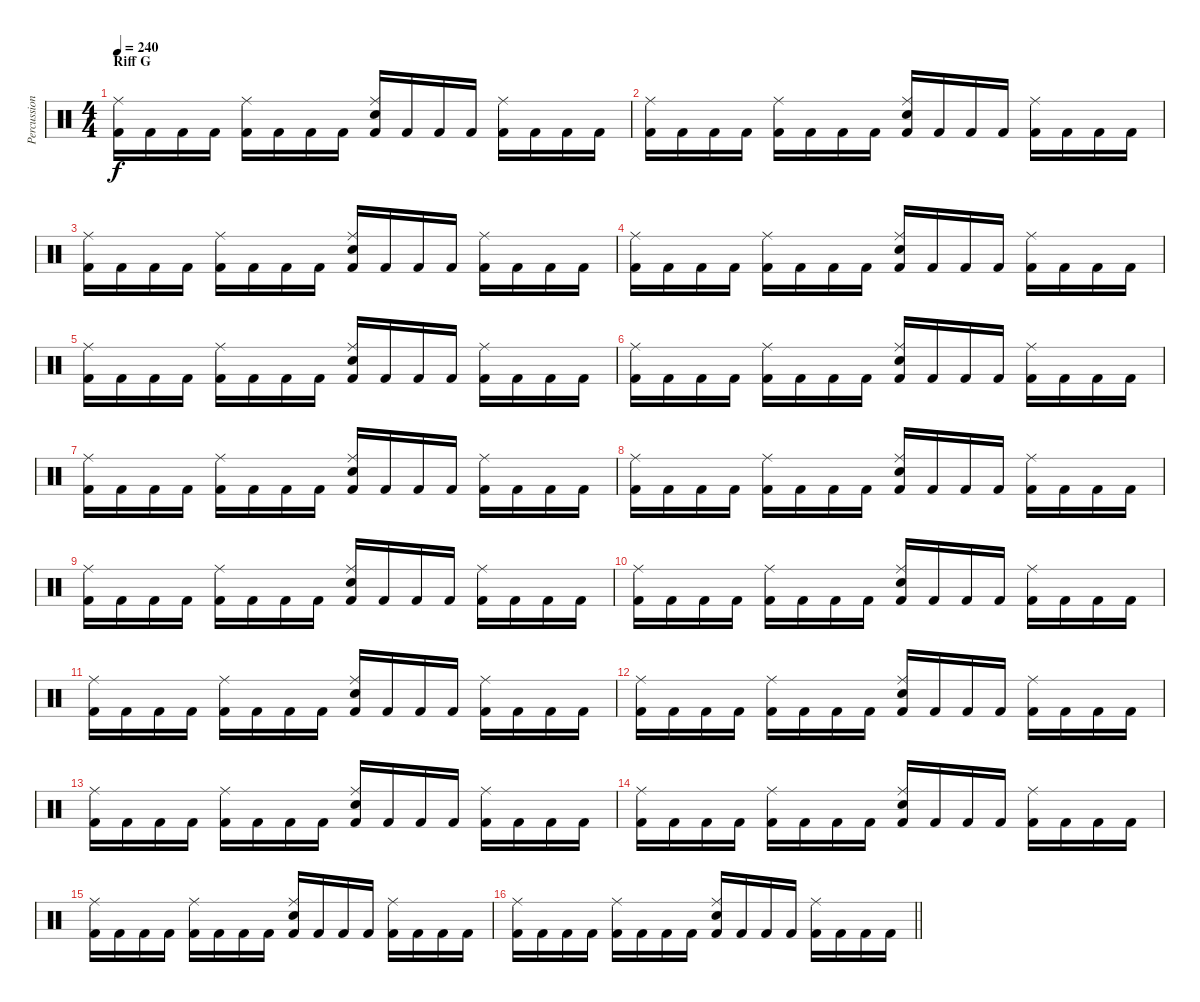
\track ("Percussion" "Percussion") {instrument percussion}
\staff {score}
\articulation defaults
\ts (4 4)
\section ("" "Riff G")
\tempo 240
\clef neutral
\ks c
("Kick (hit) 2" "Ride (middle)").16{dy f} "Kick (hit) 2".16 "Kick (hit) 2".16 "Kick (hit) 2".16 ("Kick (hit) 2" "Ride (middle)").16 "Kick (hit) 2".16 "Kick (hit) 2".16 "Kick (hit) 2".16 ("Kick (hit) 2" "Ride (middle)" "Snare (hit) 2").16 "Kick (hit) 2".16 "Kick (hit) 2".16 "Kick (hit) 2".16 ("Kick (hit) 2" "Ride (middle)").16 "Kick (hit) 2".16 "Kick (hit) 2".16 "Kick (hit) 2".16 |
("Kick (hit) 2" "Ride (middle)").16 "Kick (hit) 2".16 "Kick (hit) 2".16 "Kick (hit) 2".16 ("Kick (hit) 2" "Ride (middle)").16 "Kick (hit) 2".16 "Kick (hit) 2".16 "Kick (hit) 2".16 ("Kick (hit) 2" "Ride (middle)" "Snare (hit) 2").16 "Kick (hit) 2".16 "Kick (hit) 2".16 "Kick (hit) 2".16 ("Kick (hit) 2" "Ride (middle)").16 "Kick (hit) 2".16 "Kick (hit) 2".16 "Kick (hit) 2".16 |
("Kick (hit) 2" "Ride (middle)").16 "Kick (hit) 2".16 "Kick (hit) 2".16 "Kick (hit) 2".16 ("Kick (hit) 2" "Ride (middle)").16 "Kick (hit) 2".16 "Kick (hit) 2".16 "Kick (hit) 2".16 ("Kick (hit) 2" "Ride (middle)" "Snare (hit) 2").16 "Kick (hit) 2".16 "Kick (hit) 2".16 "Kick (hit) 2".16 ("Kick (hit) 2" "Ride (middle)").16 "Kick (hit) 2".16 "Kick (hit) 2".16 "Kick (hit) 2".16 |
("Kick (hit) 2" "Ride (middle)").16 "Kick (hit) 2".16 "Kick (hit) 2".16 "Kick (hit) 2".16 ("Kick (hit) 2" "Ride (middle)").16 "Kick (hit) 2".16 "Kick (hit) 2".16 "Kick (hit) 2".16 ("Kick (hit) 2" "Ride (middle)" "Snare (hit) 2").16 "Kick (hit) 2".16 "Kick (hit) 2".16 "Kick (hit) 2".16 ("Kick (hit) 2" "Ride (middle)").16 "Kick (hit) 2".16 "Kick (hit) 2".16 "Kick (hit) 2".16 |
("Kick (hit) 2" "Ride (middle)").16 "Kick (hit) 2".16 "Kick (hit) 2".16 "Kick (hit) 2".16 ("Kick (hit) 2" "Ride (middle)").16 "Kick (hit) 2".16 "Kick (hit) 2".16 "Kick (hit) 2".16 ("Kick (hit) 2" "Ride (middle)" "Snare (hit) 2").16 "Kick (hit) 2".16 "Kick (hit) 2".16 "Kick (hit) 2".16 ("Kick (hit) 2" "Ride (middle)").16 "Kick (hit) 2".16 "Kick (hit) 2".16 "Kick (hit) 2".16 |
("Kick (hit) 2" "Ride (middle)").16 "Kick (hit) 2".16 "Kick (hit) 2".16 "Kick (hit) 2".16 ("Kick (hit) 2" "Ride (middle)").16 "Kick (hit) 2".16 "Kick (hit) 2".16 "Kick (hit) 2".16 ("Kick (hit) 2" "Ride (middle)" "Snare (hit) 2").16 "Kick (hit) 2".16 "Kick (hit) 2".16 "Kick (hit) 2".16 ("Kick (hit) 2" "Ride (middle)").16 "Kick (hit) 2".16 "Kick (hit) 2".16 "Kick (hit) 2".16 |
("Kick (hit) 2" "Ride (middle)").16 "Kick (hit) 2".16 "Kick (hit) 2".16 "Kick (hit) 2".16 ("Kick (hit) 2" "Ride (middle)").16 "Kick (hit) 2".16 "Kick (hit) 2".16 "Kick (hit) 2".16 ("Kick (hit) 2" "Ride (middle)" "Snare (hit) 2").16 "Kick (hit) 2".16 "Kick (hit) 2".16 "Kick (hit) 2".16 ("Kick (hit) 2" "Ride (middle)").16 "Kick (hit) 2".16 "Kick (hit) 2".16 "Kick (hit) 2".16 |
("Kick (hit) 2" "Ride (middle)").16 "Kick (hit) 2".16 "Kick (hit) 2".16 "Kick (hit) 2".16 ("Kick (hit) 2" "Ride (middle)").16 "Kick (hit) 2".16 "Kick (hit) 2".16 "Kick (hit) 2".16 ("Kick (hit) 2" "Ride (middle)" "Snare (hit) 2").16 "Kick (hit) 2".16 "Kick (hit) 2".16 "Kick (hit) 2".16 ("Kick (hit) 2" "Ride (middle)").16 "Kick (hit) 2".16 "Kick (hit) 2".16 "Kick (hit) 2".16 |
("Kick (hit) 2" "Ride (middle)").16 "Kick (hit) 2".16 "Kick (hit) 2".16 "Kick (hit) 2".16 ("Kick (hit) 2" "Ride (middle)").16 "Kick (hit) 2".16 "Kick (hit) 2".16 "Kick (hit) 2".16 ("Kick (hit) 2" "Ride (middle)" "Snare (hit) 2").16 "Kick (hit) 2".16 "Kick (hit) 2".16 "Kick (hit) 2".16 ("Kick (hit) 2" "Ride (middle)").16 "Kick (hit) 2".16 "Kick (hit) 2".16 "Kick (hit) 2".16 |
("Kick (hit) 2" "Ride (middle)").16 "Kick (hit) 2".16 "Kick (hit) 2".16 "Kick (hit) 2".16 ("Kick (hit) 2" "Ride (middle)").16 "Kick (hit) 2".16 "Kick (hit) 2".16 "Kick (hit) 2".16 ("Kick (hit) 2" "Ride (middle)" "Snare (hit) 2").16 "Kick (hit) 2".16 "Kick (hit) 2".16 "Kick (hit) 2".16 ("Kick (hit) 2" "Ride (middle)").16 "Kick (hit) 2".16 "Kick (hit) 2".16 "Kick (hit) 2".16 |
("Kick (hit) 2" "Ride (middle)").16 "Kick (hit) 2".16 "Kick (hit) 2".16 "Kick (hit) 2".16 ("Kick (hit) 2" "Ride (middle)").16 "Kick (hit) 2".16 "Kick (hit) 2".16 "Kick (hit) 2".16 ("Kick (hit) 2" "Ride (middle)" "Snare (hit) 2").16 "Kick (hit) 2".16 "Kick (hit) 2".16 "Kick (hit) 2".16 ("Kick (hit) 2" "Ride (middle)").16 "Kick (hit) 2".16 "Kick (hit) 2".16 "Kick (hit) 2".16 |
("Kick (hit) 2" "Ride (middle)").16 "Kick (hit) 2".16 "Kick (hit) 2".16 "Kick (hit) 2".16 ("Kick (hit) 2" "Ride (middle)").16 "Kick (hit) 2".16 "Kick (hit) 2".16 "Kick (hit) 2".16 ("Kick (hit) 2" "Ride (middle)" "Snare (hit) 2").16 "Kick (hit) 2".16 "Kick (hit) 2".16 "Kick (hit) 2".16 ("Kick (hit) 2" "Ride (middle)").16 "Kick (hit) 2".16 "Kick (hit) 2".16 "Kick (hit) 2".16 |
("Kick (hit) 2" "Ride (middle)").16 "Kick (hit) 2".16 "Kick (hit) 2".16 "Kick (hit) 2".16 ("Kick (hit) 2" "Ride (middle)").16 "Kick (hit) 2".16 "Kick (hit) 2".16 "Kick (hit) 2".16 ("Kick (hit) 2" "Ride (middle)" "Snare (hit) 2").16 "Kick (hit) 2".16 "Kick (hit) 2".16 "Kick (hit) 2".16 ("Kick (hit) 2" "Ride (middle)").16 "Kick (hit) 2".16 "Kick (hit) 2".16 "Kick (hit) 2".16 |
("Kick (hit) 2" "Ride (middle)").16 "Kick (hit) 2".16 "Kick (hit) 2".16 "Kick (hit) 2".16 ("Kick (hit) 2" "Ride (middle)").16 "Kick (hit) 2".16 "Kick (hit) 2".16 "Kick (hit) 2".16 ("Kick (hit) 2" "Ride (middle)" "Snare (hit) 2").16 "Kick (hit) 2".16 "Kick (hit) 2".16 "Kick (hit) 2".16 ("Kick (hit) 2" "Ride (middle)").16 "Kick (hit) 2".16 "Kick (hit) 2".16 "Kick (hit) 2".16 |
("Kick (hit) 2" "Ride (middle)").16 "Kick (hit) 2".16 "Kick (hit) 2".16 "Kick (hit) 2".16 ("Kick (hit) 2" "Ride (middle)").16 "Kick (hit) 2".16 "Kick (hit) 2".16 "Kick (hit) 2".16 ("Kick (hit) 2" "Ride (middle)" "Snare (hit) 2").16 "Kick (hit) 2".16 "Kick (hit) 2".16 "Kick (hit) 2".16 ("Kick (hit) 2" "Ride (middle)").16 "Kick (hit) 2".16 "Kick (hit) 2".16 "Kick (hit) 2".16 |
\barLineRight lightlight
("Kick (hit) 2" "Ride (middle)").16 "Kick (hit) 2".16 "Kick (hit) 2".16 "Kick (hit) 2".16 ("Kick (hit) 2" "Ride (middle)").16 "Kick (hit) 2".16 "Kick (hit) 2".16 "Kick (hit) 2".16 ("Kick (hit) 2" "Ride (middle)" "Snare (hit) 2").16 "Kick (hit) 2".16 "Kick (hit) 2".16 "Kick (hit) 2".16 ("Kick (hit) 2" "Ride (middle)").16 "Kick (hit) 2".16 "Kick (hit) 2".16 "Kick (hit) 2".16
